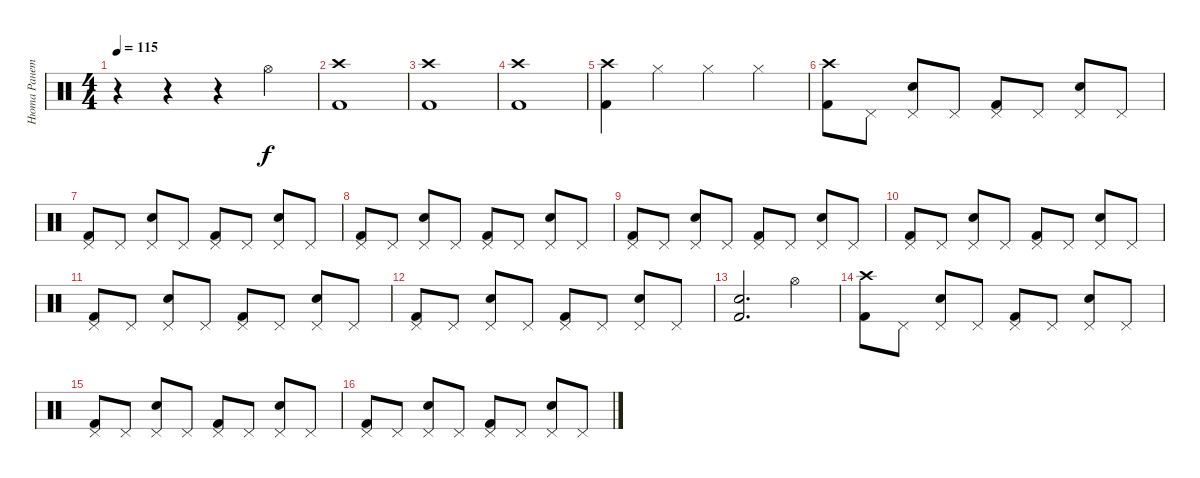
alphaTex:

\track ("Нюта Ранетка" "Нюта Ранет") {instrument percussion}
\staff {score}
\articulation defaults
\ts (4 4)
\tempo 115
\clef neutral
\ks c
r.4{dy f} r.4 r.4 "Hi-Hat (open)".4 |
("Crash high (hit)" "Kick (hit) 2").1 |
("Crash high (hit)" "Kick (hit) 2").1 |
("Crash high (hit)" "Kick (hit) 2").1 |
("Crash high (hit)" "Kick (hit) 2").4 "Hi-Hat (closed)".4 "Hi-Hat (closed)".4 "Hi-Hat (closed)".4 |
("Crash high (hit)" "Kick (hit) 2").8 "Pedal Hi-Hat (hit)".8 ("Pedal Hi-Hat (hit)" "Electric Snare (hit)").8 "Pedal Hi-Hat (hit)".8 ("Pedal Hi-Hat (hit)" "Kick (hit) 2").8 "Pedal Hi-Hat (hit)".8 ("Pedal Hi-Hat (hit)" "Electric Snare (hit)").8 "Pedal Hi-Hat (hit)".8 |
("Pedal Hi-Hat (hit)" "Kick (hit) 2").8 "Pedal Hi-Hat (hit)".8 ("Pedal Hi-Hat (hit)" "Electric Snare (hit)").8 "Pedal Hi-Hat (hit)".8 ("Pedal Hi-Hat (hit)" "Kick (hit) 2").8 "Pedal Hi-Hat (hit)".8 ("Pedal Hi-Hat (hit)" "Electric Snare (hit)").8 "Pedal Hi-Hat (hit)".8 |
("Pedal Hi-Hat (hit)" "Kick (hit) 2").8 "Pedal Hi-Hat (hit)".8 ("Pedal Hi-Hat (hit)" "Electric Snare (hit)").8 "Pedal Hi-Hat (hit)".8 ("Pedal Hi-Hat (hit)" "Kick (hit) 2").8 "Pedal Hi-Hat (hit)".8 ("Pedal Hi-Hat (hit)" "Electric Snare (hit)").8 "Pedal Hi-Hat (hit)".8 |
("Pedal Hi-Hat (hit)" "Kick (hit) 2").8 "Pedal Hi-Hat (hit)".8 ("Pedal Hi-Hat (hit)" "Electric Snare (hit)").8 "Pedal Hi-Hat (hit)".8 ("Pedal Hi-Hat (hit)" "Kick (hit) 2").8 "Pedal Hi-Hat (hit)".8 ("Pedal Hi-Hat (hit)" "Electric Snare (hit)").8 "Pedal Hi-Hat (hit)".8 |
("Pedal Hi-Hat (hit)" "Kick (hit) 2").8 "Pedal Hi-Hat (hit)".8 ("Pedal Hi-Hat (hit)" "Electric Snare (hit)").8 "Pedal Hi-Hat (hit)".8 ("Pedal Hi-Hat (hit)" "Kick (hit) 2").8 "Pedal Hi-Hat (hit)".8 ("Pedal Hi-Hat (hit)" "Electric Snare (hit)").8 "Pedal Hi-Hat (hit)".8 |
("Pedal Hi-Hat (hit)" "Kick (hit) 2").8 "Pedal Hi-Hat (hit)".8 ("Pedal Hi-Hat (hit)" "Electric Snare (hit)").8 "Pedal Hi-Hat (hit)".8 ("Pedal Hi-Hat (hit)" "Kick (hit) 2").8 "Pedal Hi-Hat (hit)".8 ("Pedal Hi-Hat (hit)" "Electric Snare (hit)").8 "Pedal Hi-Hat (hit)".8 |
("Pedal Hi-Hat (hit)" "Kick (hit) 2").8 "Pedal Hi-Hat (hit)".8 ("Pedal Hi-Hat (hit)" "Electric Snare (hit)").8 "Pedal Hi-Hat (hit)".8 ("Pedal Hi-Hat (hit)" "Kick (hit) 2").8 "Pedal Hi-Hat (hit)".8 ("Pedal Hi-Hat (hit)" "Electric Snare (hit)").8 "Pedal Hi-Hat (hit)".8 |
("Electric Snare (hit)" "Kick (hit) 2").2{d} "Hi-Hat (open)".4 |
("Crash high (hit)" "Kick (hit) 2").8 "Pedal Hi-Hat (hit)".8 ("Pedal Hi-Hat (hit)" "Electric Snare (hit)").8 "Pedal Hi-Hat (hit)".8 ("Pedal Hi-Hat (hit)" "Kick (hit) 2").8 "Pedal Hi-Hat (hit)".8 ("Pedal Hi-Hat (hit)" "Electric Snare (hit)").8 "Pedal Hi-Hat (hit)".8 |
("Pedal Hi-Hat (hit)" "Kick (hit) 2").8 "Pedal Hi-Hat (hit)".8 ("Pedal Hi-Hat (hit)" "Electric Snare (hit)").8 "Pedal Hi-Hat (hit)".8 ("Pedal Hi-Hat (hit)" "Kick (hit) 2").8 "Pedal Hi-Hat (hit)".8 ("Pedal Hi-Hat (hit)" "Electric Snare (hit)").8 "Pedal Hi-Hat (hit)".8 |
("Pedal Hi-Hat (hit)" "Kick (hit) 2").8 "Pedal Hi-Hat (hit)".8 ("Pedal Hi-Hat (hit)" "Electric Snare (hit)").8 "Pedal Hi-Hat (hit)".8 ("Pedal Hi-Hat (hit)" "Kick (hit) 2").8 "Pedal Hi-Hat (hit)".8 ("Pedal Hi-Hat (hit)" "Electric Snare (hit)").8 "Pedal Hi-Hat (hit)".8
